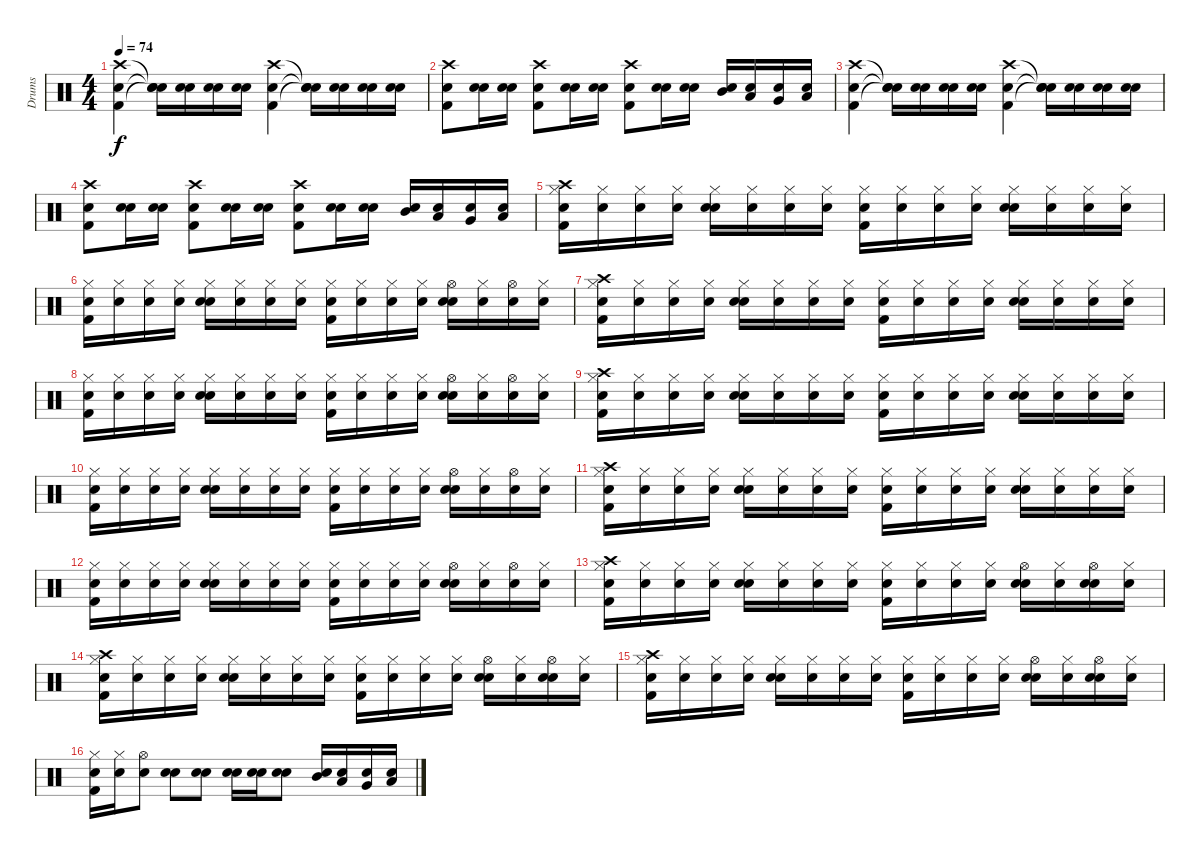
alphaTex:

\track ("Drums" "Drums") {instrument percussion}
\staff {score}
\articulation defaults
\ts (4 4)
\tempo 74
\clef neutral
\ks c
("Snare (hit)" "Kick (hit) 2" "Crash high (hit)").4{dy f} ("Snare (hit)"{t} "Snare (hit)"{t} "Snare (hit)"{t}).16 ("Snare (hit)" "Snare (hit) 2").16 ("Snare (hit)" "Snare (hit) 2").16 ("Snare (hit)" "Snare (hit) 2").16 ("Snare (hit)" "Kick (hit) 2" "Crash high (hit)").4 ("Snare (hit)"{t} "Snare (hit)"{t} "Snare (hit)"{t}).16 ("Snare (hit)" "Snare (hit) 2").16 ("Snare (hit)" "Snare (hit) 2").16 ("Snare (hit)" "Snare (hit) 2").16 |
("Snare (hit)" "Kick (hit) 2" "Crash high (hit)").8 ("Snare (hit)" "Snare (hit) 2").16 ("Snare (hit)" "Snare (hit) 2").16 ("Snare (hit)" "Kick (hit) 2" "Crash high (hit)").8 ("Snare (hit)" "Snare (hit) 2").16 ("Snare (hit)" "Snare (hit) 2").16 ("Snare (hit)" "Kick (hit) 2" "Crash high (hit)").8 ("Snare (hit)" "Snare (hit) 2").16 ("Snare (hit)" "Snare (hit) 2").16 ("Snare (hit)" "Mid Tom (hit)").16 ("Snare (hit)" "Low Tom (hit)").16 ("Snare (hit)" "Very Low Tom (hit)").16 ("Snare (hit)" "Low Floor Tom (hit)").16 |
("Snare (hit)" "Kick (hit) 2" "Crash high (hit)").4 ("Snare (hit)"{t} "Snare (hit)"{t} "Snare (hit)"{t}).16 ("Snare (hit)" "Snare (hit) 2").16 ("Snare (hit)" "Snare (hit) 2").16 ("Snare (hit)" "Snare (hit) 2").16 ("Snare (hit)" "Kick (hit) 2" "Crash high (hit)").4 ("Snare (hit)"{t} "Snare (hit)"{t} "Snare (hit)"{t}).16 ("Snare (hit)" "Snare (hit) 2").16 ("Snare (hit)" "Snare (hit) 2").16 ("Snare (hit)" "Snare (hit) 2").16 |
("Snare (hit)" "Kick (hit) 2" "Crash high (hit)").8 ("Snare (hit)" "Snare (hit) 2").16 ("Snare (hit)" "Snare (hit) 2").16 ("Snare (hit)" "Kick (hit) 2" "Crash high (hit)").8 ("Snare (hit)" "Snare (hit) 2").16 ("Snare (hit)" "Snare (hit) 2").16 ("Snare (hit)" "Kick (hit) 2" "Crash high (hit)").8 ("Snare (hit)" "Snare (hit) 2").16 ("Snare (hit)" "Snare (hit) 2").16 ("Snare (hit)" "Mid Tom (hit)").16 ("Snare (hit)" "Low Tom (hit)").16 ("Snare (hit)" "Very Low Tom (hit)").16 ("Snare (hit)" "Low Floor Tom (hit)").16 |
("Snare (hit)" "Kick (hit) 2" "Hi-Hat (closed)" "Crash high (hit)").16 ("Snare (hit)" "Hi-Hat (closed)").16 ("Snare (hit)" "Hi-Hat (closed)").16 ("Snare (hit)" "Hi-Hat (closed)").16 ("Snare (hit)" "Snare (hit) 2" "Hi-Hat (closed)").16 ("Snare (hit)" "Hi-Hat (closed)").16 ("Snare (hit)" "Hi-Hat (closed)").16 ("Snare (hit)" "Hi-Hat (closed)").16 ("Snare (hit)" "Kick (hit) 2" "Hi-Hat (closed)").16 ("Snare (hit)" "Hi-Hat (closed)").16 ("Snare (hit)" "Hi-Hat (closed)").16 ("Snare (hit)" "Hi-Hat (closed)").16 ("Snare (hit)" "Snare (hit) 2" "Hi-Hat (closed)").16 ("Snare (hit)" "Hi-Hat (closed)").16 ("Snare (hit)" "Hi-Hat (closed)").16 ("Snare (hit)" "Hi-Hat (closed)").16 |
("Snare (hit)" "Kick (hit) 2" "Hi-Hat (closed)").16 ("Snare (hit)" "Hi-Hat (closed)").16 ("Snare (hit)" "Hi-Hat (closed)").16 ("Snare (hit)" "Hi-Hat (closed)").16 ("Snare (hit)" "Snare (hit) 2" "Hi-Hat (closed)").16 ("Snare (hit)" "Hi-Hat (closed)").16 ("Snare (hit)" "Hi-Hat (closed)").16 ("Snare (hit)" "Hi-Hat (closed)").16 ("Snare (hit)" "Kick (hit) 2" "Hi-Hat (closed)").16 ("Snare (hit)" "Hi-Hat (closed)").16 ("Snare (hit)" "Hi-Hat (closed)").16 ("Snare (hit)" "Hi-Hat (closed)").16 ("Snare (hit)" "Snare (hit) 2" "Hi-Hat (open)").16 ("Snare (hit)" "Hi-Hat (closed)").16 ("Snare (hit)" "Hi-Hat (open)").16 ("Snare (hit)" "Hi-Hat (closed)").16 |
("Snare (hit)" "Kick (hit) 2" "Hi-Hat (closed)" "Crash high (hit)").16 ("Snare (hit)" "Hi-Hat (closed)").16 ("Snare (hit)" "Hi-Hat (closed)").16 ("Snare (hit)" "Hi-Hat (closed)").16 ("Snare (hit)" "Snare (hit) 2" "Hi-Hat (closed)").16 ("Snare (hit)" "Hi-Hat (closed)").16 ("Snare (hit)" "Hi-Hat (closed)").16 ("Snare (hit)" "Hi-Hat (closed)").16 ("Snare (hit)" "Kick (hit) 2" "Hi-Hat (closed)").16 ("Snare (hit)" "Hi-Hat (closed)").16 ("Snare (hit)" "Hi-Hat (closed)").16 ("Snare (hit)" "Hi-Hat (closed)").16 ("Snare (hit)" "Snare (hit) 2" "Hi-Hat (closed)").16 ("Snare (hit)" "Hi-Hat (closed)").16 ("Snare (hit)" "Hi-Hat (closed)").16 ("Snare (hit)" "Hi-Hat (closed)").16 |
("Snare (hit)" "Kick (hit) 2" "Hi-Hat (closed)").16 ("Snare (hit)" "Hi-Hat (closed)").16 ("Snare (hit)" "Hi-Hat (closed)").16 ("Snare (hit)" "Hi-Hat (closed)").16 ("Snare (hit)" "Snare (hit) 2" "Hi-Hat (closed)").16 ("Snare (hit)" "Hi-Hat (closed)").16 ("Snare (hit)" "Hi-Hat (closed)").16 ("Snare (hit)" "Hi-Hat (closed)").16 ("Snare (hit)" "Kick (hit) 2" "Hi-Hat (closed)").16 ("Snare (hit)" "Hi-Hat (closed)").16 ("Snare (hit)" "Hi-Hat (closed)").16 ("Snare (hit)" "Hi-Hat (closed)").16 ("Snare (hit)" "Snare (hit) 2" "Hi-Hat (open)").16 ("Snare (hit)" "Hi-Hat (closed)").16 ("Snare (hit)" "Hi-Hat (open)").16 ("Snare (hit)" "Hi-Hat (closed)").16 |
("Snare (hit)" "Kick (hit) 2" "Hi-Hat (closed)" "Crash high (hit)").16 ("Snare (hit)" "Hi-Hat (closed)").16 ("Snare (hit)" "Hi-Hat (closed)").16 ("Snare (hit)" "Hi-Hat (closed)").16 ("Snare (hit)" "Snare (hit) 2" "Hi-Hat (closed)").16 ("Snare (hit)" "Hi-Hat (closed)").16 ("Snare (hit)" "Hi-Hat (closed)").16 ("Snare (hit)" "Hi-Hat (closed)").16 ("Snare (hit)" "Kick (hit) 2" "Hi-Hat (closed)").16 ("Snare (hit)" "Hi-Hat (closed)").16 ("Snare (hit)" "Hi-Hat (closed)").16 ("Snare (hit)" "Hi-Hat (closed)").16 ("Snare (hit)" "Snare (hit) 2" "Hi-Hat (closed)").16 ("Snare (hit)" "Hi-Hat (closed)").16 ("Snare (hit)" "Hi-Hat (closed)").16 ("Snare (hit)" "Hi-Hat (closed)").16 |
("Snare (hit)" "Kick (hit) 2" "Hi-Hat (closed)").16 ("Snare (hit)" "Hi-Hat (closed)").16 ("Snare (hit)" "Hi-Hat (closed)").16 ("Snare (hit)" "Hi-Hat (closed)").16 ("Snare (hit)" "Snare (hit) 2" "Hi-Hat (closed)").16 ("Snare (hit)" "Hi-Hat (closed)").16 ("Snare (hit)" "Hi-Hat (closed)").16 ("Snare (hit)" "Hi-Hat (closed)").16 ("Snare (hit)" "Kick (hit) 2" "Hi-Hat (closed)").16 ("Snare (hit)" "Hi-Hat (closed)").16 ("Snare (hit)" "Hi-Hat (closed)").16 ("Snare (hit)" "Hi-Hat (closed)").16 ("Snare (hit)" "Snare (hit) 2" "Hi-Hat (open)").16 ("Snare (hit)" "Hi-Hat (closed)").16 ("Snare (hit)" "Hi-Hat (open)").16 ("Snare (hit)" "Hi-Hat (closed)").16 |
("Snare (hit)" "Kick (hit) 2" "Hi-Hat (closed)" "Crash high (hit)").16 ("Snare (hit)" "Hi-Hat (closed)").16 ("Snare (hit)" "Hi-Hat (closed)").16 ("Snare (hit)" "Hi-Hat (closed)").16 ("Snare (hit)" "Snare (hit) 2" "Hi-Hat (closed)").16 ("Snare (hit)" "Hi-Hat (closed)").16 ("Snare (hit)" "Hi-Hat (closed)").16 ("Snare (hit)" "Hi-Hat (closed)").16 ("Snare (hit)" "Kick (hit) 2" "Hi-Hat (closed)").16 ("Snare (hit)" "Hi-Hat (closed)").16 ("Snare (hit)" "Hi-Hat (closed)").16 ("Snare (hit)" "Hi-Hat (closed)").16 ("Snare (hit)" "Snare (hit) 2" "Hi-Hat (closed)").16 ("Snare (hit)" "Hi-Hat (closed)").16 ("Snare (hit)" "Hi-Hat (closed)").16 ("Snare (hit)" "Hi-Hat (closed)").16 |
("Snare (hit)" "Kick (hit) 2" "Hi-Hat (closed)").16 ("Snare (hit)" "Hi-Hat (closed)").16 ("Snare (hit)" "Hi-Hat (closed)").16 ("Snare (hit)" "Hi-Hat (closed)").16 ("Snare (hit)" "Snare (hit) 2" "Hi-Hat (closed)").16 ("Snare (hit)" "Hi-Hat (closed)").16 ("Snare (hit)" "Hi-Hat (closed)").16 ("Snare (hit)" "Hi-Hat (closed)").16 ("Snare (hit)" "Kick (hit) 2" "Hi-Hat (closed)").16 ("Snare (hit)" "Hi-Hat (closed)").16 ("Snare (hit)" "Hi-Hat (closed)").16 ("Snare (hit)" "Hi-Hat (closed)").16 ("Snare (hit)" "Snare (hit) 2" "Hi-Hat (open)").16 ("Snare (hit)" "Hi-Hat (closed)").16 ("Snare (hit)" "Hi-Hat (open)").16 ("Snare (hit)" "Hi-Hat (closed)").16 |
("Snare (hit)" "Kick (hit) 2" "Hi-Hat (closed)" "Crash high (hit)").16 ("Snare (hit)" "Hi-Hat (closed)").16 ("Snare (hit)" "Hi-Hat (closed)").16 ("Snare (hit)" "Hi-Hat (closed)").16 ("Snare (hit)" "Snare (hit) 2" "Hi-Hat (closed)").16 ("Snare (hit)" "Hi-Hat (closed)").16 ("Snare (hit)" "Hi-Hat (closed)").16 ("Snare (hit)" "Hi-Hat (closed)").16 ("Snare (hit)" "Kick (hit) 2" "Hi-Hat (closed)").16 ("Snare (hit)" "Hi-Hat (closed)").16 ("Snare (hit)" "Hi-Hat (closed)").16 ("Snare (hit)" "Hi-Hat (closed)").16 ("Snare (hit)" "Snare (hit) 2" "Hi-Hat (open)").16 ("Snare (hit)" "Hi-Hat (closed)").16 ("Snare (hit)" "Snare (hit) 2" "Hi-Hat (open)").16 ("Snare (hit)" "Hi-Hat (closed)").16 |
("Snare (hit)" "Kick (hit) 2" "Hi-Hat (closed)" "Crash high (hit)").16 ("Snare (hit)" "Hi-Hat (closed)").16 ("Snare (hit)" "Hi-Hat (closed)").16 ("Snare (hit)" "Hi-Hat (closed)").16 ("Snare (hit)" "Snare (hit) 2" "Hi-Hat (closed)").16 ("Snare (hit)" "Hi-Hat (closed)").16 ("Snare (hit)" "Hi-Hat (closed)").16 ("Snare (hit)" "Hi-Hat (closed)").16 ("Snare (hit)" "Kick (hit) 2" "Hi-Hat (closed)").16 ("Snare (hit)" "Hi-Hat (closed)").16 ("Snare (hit)" "Hi-Hat (closed)").16 ("Snare (hit)" "Hi-Hat (closed)").16 ("Snare (hit)" "Snare (hit) 2" "Hi-Hat (open)").16 ("Snare (hit)" "Hi-Hat (closed)").16 ("Snare (hit)" "Snare (hit) 2" "Hi-Hat (open)").16 ("Snare (hit)" "Hi-Hat (closed)").16 |
("Snare (hit)" "Kick (hit) 2" "Hi-Hat (closed)" "Crash high (hit)").16 ("Snare (hit)" "Hi-Hat (closed)").16 ("Snare (hit)" "Hi-Hat (closed)").16 ("Snare (hit)" "Hi-Hat (closed)").16 ("Snare (hit)" "Snare (hit) 2" "Hi-Hat (closed)").16 ("Snare (hit)" "Hi-Hat (closed)").16 ("Snare (hit)" "Hi-Hat (closed)").16 ("Snare (hit)" "Hi-Hat (closed)").16 ("Snare (hit)" "Kick (hit) 2" "Hi-Hat (closed)").16 ("Snare (hit)" "Hi-Hat (closed)").16 ("Snare (hit)" "Hi-Hat (closed)").16 ("Snare (hit)" "Hi-Hat (closed)").16 ("Snare (hit)" "Snare (hit) 2" "Hi-Hat (open)").16 ("Snare (hit)" "Hi-Hat (closed)").16 ("Snare (hit)" "Snare (hit) 2" "Hi-Hat (open)").16 ("Snare (hit)" "Hi-Hat (closed)").16 |
("Snare (hit)" "Kick (hit) 2" "Hi-Hat (closed)").16 ("Snare (hit)" "Hi-Hat (closed)").16 ("Snare (hit)" "Hi-Hat (open)").8 ("Snare (hit)" "Snare (hit) 2").8 ("Snare (hit)" "Snare (hit) 2").8 ("Snare (hit)" "Snare (hit) 2").16 ("Snare (hit)" "Snare (hit) 2").16 ("Snare (hit)" "Snare (hit) 2").8 ("Snare (hit)" "Mid Tom (hit)").16 ("Snare (hit)" "Low Tom (hit)").16 ("Snare (hit)" "Very Low Tom (hit)").16 ("Snare (hit)" "Low Floor Tom (hit)").16
